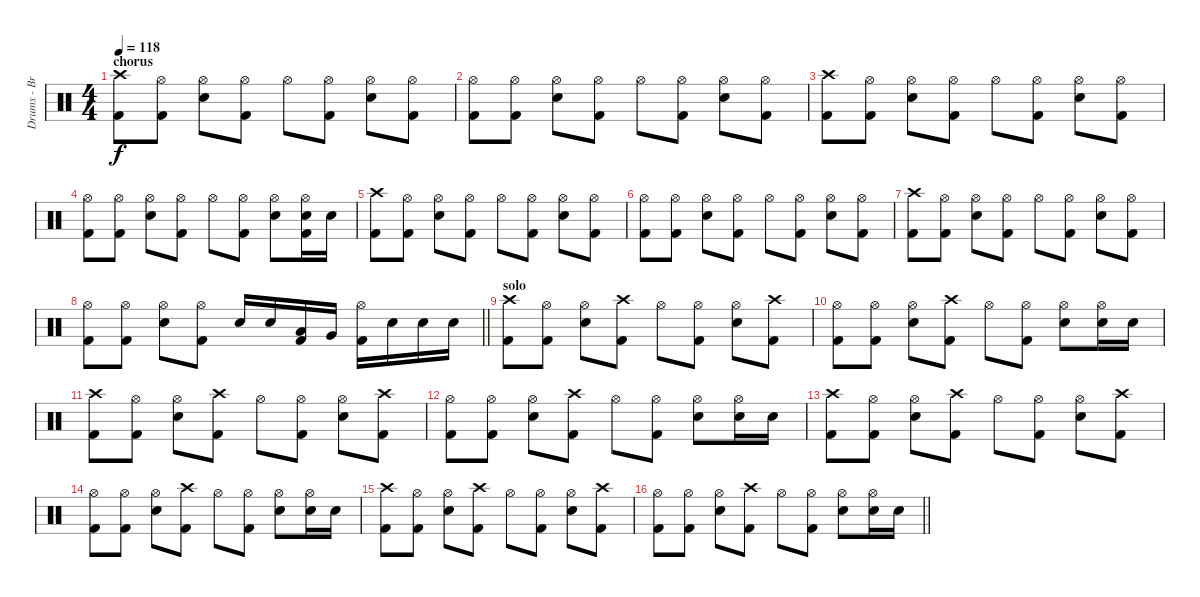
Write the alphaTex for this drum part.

\track ("Drums - Brian Young" "Drums - Br") {instrument percussion}
\staff {score}
\articulation defaults
\ts (4 4)
\section ("" "chorus")
\tempo 118
\clef neutral
\ks c
("Crash high (hit)" "Kick (hit) 2").8{dy f} ("Hi-Hat (open)" "Kick (hit) 2").8 ("Hi-Hat (open)" "Electric Snare (hit)").8 ("Hi-Hat (open)" "Kick (hit) 2").8 "Hi-Hat (open)".8 ("Hi-Hat (open)" "Kick (hit) 2").8 ("Hi-Hat (open)" "Electric Snare (hit)").8 ("Hi-Hat (open)" "Kick (hit) 2").8 |
("Hi-Hat (open)" "Kick (hit) 2").8 ("Hi-Hat (open)" "Kick (hit) 2").8 ("Hi-Hat (open)" "Electric Snare (hit)").8 ("Hi-Hat (open)" "Kick (hit) 2").8 "Hi-Hat (open)".8 ("Hi-Hat (open)" "Kick (hit) 2").8 ("Hi-Hat (open)" "Electric Snare (hit)").8 ("Hi-Hat (open)" "Kick (hit) 2").8 |
("Crash high (hit)" "Kick (hit) 2").8 ("Hi-Hat (open)" "Kick (hit) 2").8 ("Hi-Hat (open)" "Electric Snare (hit)").8 ("Hi-Hat (open)" "Kick (hit) 2").8 "Hi-Hat (open)".8 ("Hi-Hat (open)" "Kick (hit) 2").8 ("Hi-Hat (open)" "Electric Snare (hit)").8 ("Hi-Hat (open)" "Kick (hit) 2").8 |
("Hi-Hat (open)" "Kick (hit) 2").8 ("Hi-Hat (open)" "Kick (hit) 2").8 ("Hi-Hat (open)" "Electric Snare (hit)").8 ("Hi-Hat (open)" "Kick (hit) 2").8 "Hi-Hat (open)".8 ("Hi-Hat (open)" "Kick (hit) 2").8 ("Hi-Hat (open)" "Electric Snare (hit)").8 ("Hi-Hat (open)" "Electric Snare (hit)" "Kick (hit) 2").16 "Electric Snare (hit)".16 |
("Crash high (hit)" "Kick (hit) 2").8 ("Hi-Hat (open)" "Kick (hit) 2").8 ("Hi-Hat (open)" "Electric Snare (hit)").8 ("Hi-Hat (open)" "Kick (hit) 2").8 "Hi-Hat (open)".8 ("Hi-Hat (open)" "Kick (hit) 2").8 ("Hi-Hat (open)" "Electric Snare (hit)").8 ("Hi-Hat (open)" "Kick (hit) 2").8 |
("Hi-Hat (open)" "Kick (hit) 2").8 ("Hi-Hat (open)" "Kick (hit) 2").8 ("Hi-Hat (open)" "Electric Snare (hit)").8 ("Hi-Hat (open)" "Kick (hit) 2").8 "Hi-Hat (open)".8 ("Hi-Hat (open)" "Kick (hit) 2").8 ("Hi-Hat (open)" "Electric Snare (hit)").8 ("Hi-Hat (open)" "Kick (hit) 2").8 |
("Crash high (hit)" "Kick (hit) 2").8 ("Hi-Hat (open)" "Kick (hit) 2").8 ("Hi-Hat (open)" "Electric Snare (hit)").8 ("Hi-Hat (open)" "Kick (hit) 2").8 "Hi-Hat (open)".8 ("Hi-Hat (open)" "Kick (hit) 2").8 ("Hi-Hat (open)" "Electric Snare (hit)").8 ("Hi-Hat (open)" "Kick (hit) 2").8 |
\barLineRight lightlight
("Hi-Hat (open)" "Kick (hit) 2").8 ("Hi-Hat (open)" "Kick (hit) 2").8 ("Hi-Hat (open)" "Electric Snare (hit)").8 ("Hi-Hat (open)" "Kick (hit) 2").8 "Electric Snare (hit)".16 "Electric Snare (hit)".16 ("Low Tom (hit)" "Kick (hit) 2").16 "Very Low Tom (hit)".16 ("Hi-Hat (open)" "Kick (hit) 2").16 "Electric Snare (hit)".16 "Electric Snare (hit)".16 "Electric Snare (hit)".16 |
\section ("" "solo")
("Crash high (hit)" "Kick (hit) 2").8 ("Hi-Hat (open)" "Kick (hit) 2").8 ("Hi-Hat (open)" "Electric Snare (hit)").8 ("Crash high (hit)" "Kick (hit) 2").8 "Hi-Hat (open)".8 ("Hi-Hat (open)" "Kick (hit) 2").8 ("Hi-Hat (open)" "Electric Snare (hit)").8 ("Crash high (hit)" "Kick (hit) 2").8 |
("Hi-Hat (open)" "Kick (hit) 2").8 ("Hi-Hat (open)" "Kick (hit) 2").8 ("Hi-Hat (open)" "Electric Snare (hit)").8 ("Crash high (hit)" "Kick (hit) 2").8 "Hi-Hat (open)".8 ("Hi-Hat (open)" "Kick (hit) 2").8 ("Hi-Hat (open)" "Electric Snare (hit)").8 ("Hi-Hat (open)" "Electric Snare (hit)").16 "Electric Snare (hit)".16 |
("Crash high (hit)" "Kick (hit) 2").8 ("Hi-Hat (open)" "Kick (hit) 2").8 ("Hi-Hat (open)" "Electric Snare (hit)").8 ("Crash high (hit)" "Kick (hit) 2").8 "Hi-Hat (open)".8 ("Hi-Hat (open)" "Kick (hit) 2").8 ("Hi-Hat (open)" "Electric Snare (hit)").8 ("Crash high (hit)" "Kick (hit) 2").8 |
("Hi-Hat (open)" "Kick (hit) 2").8 ("Hi-Hat (open)" "Kick (hit) 2").8 ("Hi-Hat (open)" "Electric Snare (hit)").8 ("Crash high (hit)" "Kick (hit) 2").8 "Hi-Hat (open)".8 ("Hi-Hat (open)" "Kick (hit) 2").8 ("Hi-Hat (open)" "Electric Snare (hit)").8 ("Hi-Hat (open)" "Electric Snare (hit)").16 "Electric Snare (hit)".16 |
("Crash high (hit)" "Kick (hit) 2").8 ("Hi-Hat (open)" "Kick (hit) 2").8 ("Hi-Hat (open)" "Electric Snare (hit)").8 ("Crash high (hit)" "Kick (hit) 2").8 "Hi-Hat (open)".8 ("Hi-Hat (open)" "Kick (hit) 2").8 ("Hi-Hat (open)" "Electric Snare (hit)").8 ("Crash high (hit)" "Kick (hit) 2").8 |
("Hi-Hat (open)" "Kick (hit) 2").8 ("Hi-Hat (open)" "Kick (hit) 2").8 ("Hi-Hat (open)" "Electric Snare (hit)").8 ("Crash high (hit)" "Kick (hit) 2").8 "Hi-Hat (open)".8 ("Hi-Hat (open)" "Kick (hit) 2").8 ("Hi-Hat (open)" "Electric Snare (hit)").8 ("Hi-Hat (open)" "Electric Snare (hit)").16 "Electric Snare (hit)".16 |
("Crash high (hit)" "Kick (hit) 2").8 ("Hi-Hat (open)" "Kick (hit) 2").8 ("Hi-Hat (open)" "Electric Snare (hit)").8 ("Crash high (hit)" "Kick (hit) 2").8 "Hi-Hat (open)".8 ("Hi-Hat (open)" "Kick (hit) 2").8 ("Hi-Hat (open)" "Electric Snare (hit)").8 ("Crash high (hit)" "Kick (hit) 2").8 |
\barLineRight lightlight
("Hi-Hat (open)" "Kick (hit) 2").8 ("Hi-Hat (open)" "Kick (hit) 2").8 ("Hi-Hat (open)" "Electric Snare (hit)").8 ("Crash high (hit)" "Kick (hit) 2").8 "Hi-Hat (open)".8 ("Hi-Hat (open)" "Kick (hit) 2").8 ("Hi-Hat (open)" "Electric Snare (hit)").8 ("Hi-Hat (open)" "Electric Snare (hit)").16 "Electric Snare (hit)".16
